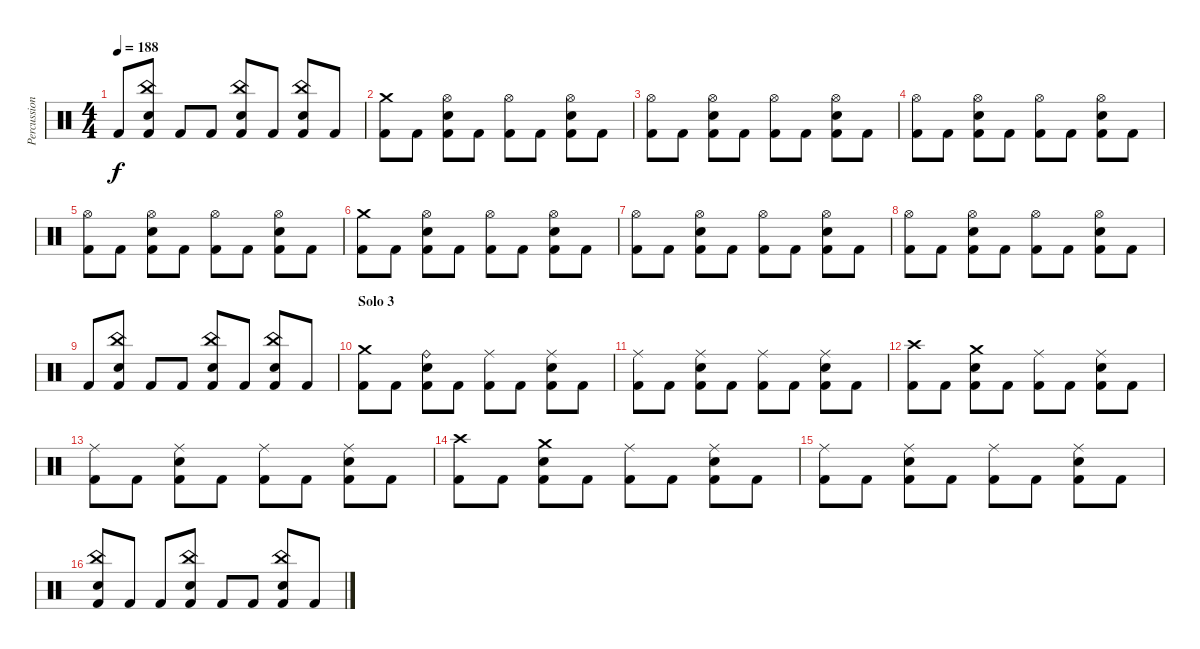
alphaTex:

\track ("Percussions" "Percussion") {instrument percussion}
\staff {score}
\articulation defaults
\ts (4 4)
\tempo 188
\clef neutral
\ks c "Kick (hit) 2".8{dy f}
("China (hit)" "Snare (hit) 2" "Kick (hit) 2").8 "Kick (hit) 2".8 "Kick (hit) 2".8 ("China (hit)" "Snare (hit) 2" "Kick (hit) 2").8 "Kick (hit) 2".8 ("China (hit)" "Snare (hit) 2" "Kick (hit) 2").8 "Kick (hit) 2".8 |
("Crash medium (hit)" "Kick (hit) 2").8 "Kick (hit) 2".8 ("Hi-Hat (open)" "Snare (hit) 2" "Kick (hit) 2").8 "Kick (hit) 2".8 ("Hi-Hat (open)" "Kick (hit) 2").8 "Kick (hit) 2".8 ("Hi-Hat (open)" "Snare (hit) 2" "Kick (hit) 2").8 "Kick (hit) 2".8 |
("Hi-Hat (open)" "Kick (hit) 2").8 "Kick (hit) 2".8 ("Hi-Hat (open)" "Snare (hit) 2" "Kick (hit) 2").8 "Kick (hit) 2".8 ("Hi-Hat (open)" "Kick (hit) 2").8 "Kick (hit) 2".8 ("Hi-Hat (open)" "Snare (hit) 2" "Kick (hit) 2").8 "Kick (hit) 2".8 |
("Hi-Hat (open)" "Kick (hit) 2").8 "Kick (hit) 2".8 ("Hi-Hat (open)" "Snare (hit) 2" "Kick (hit) 2").8 "Kick (hit) 2".8 ("Hi-Hat (open)" "Kick (hit) 2").8 "Kick (hit) 2".8 ("Hi-Hat (open)" "Snare (hit) 2" "Kick (hit) 2").8 "Kick (hit) 2".8 |
("Hi-Hat (open)" "Kick (hit) 2").8 "Kick (hit) 2".8 ("Hi-Hat (open)" "Snare (hit) 2" "Kick (hit) 2").8 "Kick (hit) 2".8 ("Hi-Hat (open)" "Kick (hit) 2").8 "Kick (hit) 2".8 ("Hi-Hat (open)" "Snare (hit) 2" "Kick (hit) 2").8 "Kick (hit) 2".8 |
("Crash medium (hit)" "Kick (hit) 2").8 "Kick (hit) 2".8 ("Hi-Hat (open)" "Snare (hit) 2" "Kick (hit) 2").8 "Kick (hit) 2".8 ("Hi-Hat (open)" "Kick (hit) 2").8 "Kick (hit) 2".8 ("Hi-Hat (open)" "Snare (hit) 2" "Kick (hit) 2").8 "Kick (hit) 2".8 |
("Hi-Hat (open)" "Kick (hit) 2").8 "Kick (hit) 2".8 ("Hi-Hat (open)" "Snare (hit) 2" "Kick (hit) 2").8 "Kick (hit) 2".8 ("Hi-Hat (open)" "Kick (hit) 2").8 "Kick (hit) 2".8 ("Hi-Hat (open)" "Snare (hit) 2" "Kick (hit) 2").8 "Kick (hit) 2".8 |
("Hi-Hat (open)" "Kick (hit) 2").8 "Kick (hit) 2".8 ("Hi-Hat (open)" "Snare (hit) 2" "Kick (hit) 2").8 "Kick (hit) 2".8 ("Hi-Hat (open)" "Kick (hit) 2").8 "Kick (hit) 2".8 ("Hi-Hat (open)" "Snare (hit) 2" "Kick (hit) 2").8 "Kick (hit) 2".8 |
"Kick (hit) 2".8 ("China (hit)" "Snare (hit) 2" "Kick (hit) 2").8 "Kick (hit) 2".8 "Kick (hit) 2".8 ("China (hit)" "Snare (hit) 2" "Kick (hit) 2").8 "Kick (hit) 2".8 ("China (hit)" "Snare (hit) 2" "Kick (hit) 2").8 "Kick (hit) 2".8 |
\section ("" "Solo 3")
("Crash medium (hit)" "Kick (hit) 2").8 "Kick (hit) 2".8 ("Ride (bell)" "Snare (hit) 2" "Kick (hit) 2").8 "Kick (hit) 2".8 ("Ride (middle)" "Kick (hit) 2").8 "Kick (hit) 2".8 ("Ride (middle)" "Snare (hit) 2" "Kick (hit) 2").8 "Kick (hit) 2".8 |
("Ride (middle)" "Kick (hit) 2").8 "Kick (hit) 2".8 ("Ride (middle)" "Snare (hit) 2" "Kick (hit) 2").8 "Kick (hit) 2".8 ("Ride (middle)" "Kick (hit) 2").8 "Kick (hit) 2".8 ("Ride (middle)" "Snare (hit) 2" "Kick (hit) 2").8 "Kick (hit) 2".8 |
("Crash high (hit)" "Kick (hit) 2").8 "Kick (hit) 2".8 ("Crash medium (hit)" "Snare (hit) 2" "Kick (hit) 2").8 "Kick (hit) 2".8 ("Ride (middle)" "Kick (hit) 2").8 "Kick (hit) 2".8 ("Ride (middle)" "Snare (hit) 2" "Kick (hit) 2").8 "Kick (hit) 2".8 |
("Ride (middle)" "Kick (hit) 2").8 "Kick (hit) 2".8 ("Ride (middle)" "Snare (hit) 2" "Kick (hit) 2").8 "Kick (hit) 2".8 ("Ride (middle)" "Kick (hit) 2").8 "Kick (hit) 2".8 ("Ride (middle)" "Snare (hit) 2" "Kick (hit) 2").8 "Kick (hit) 2".8 |
("Crash high (hit)" "Kick (hit) 2").8 "Kick (hit) 2".8 ("Crash medium (hit)" "Snare (hit) 2" "Kick (hit) 2").8 "Kick (hit) 2".8 ("Ride (middle)" "Kick (hit) 2").8 "Kick (hit) 2".8 ("Ride (middle)" "Snare (hit) 2" "Kick (hit) 2").8 "Kick (hit) 2".8 |
("Ride (middle)" "Kick (hit) 2").8 "Kick (hit) 2".8 ("Ride (middle)" "Snare (hit) 2" "Kick (hit) 2").8 "Kick (hit) 2".8 ("Ride (middle)" "Kick (hit) 2").8 "Kick (hit) 2".8 ("Ride (middle)" "Snare (hit) 2" "Kick (hit) 2").8 "Kick (hit) 2".8 |
("China (hit)" "Snare (hit) 2" "Kick (hit) 2").8 "Kick (hit) 2".8 "Kick (hit) 2".8 ("China (hit)" "Snare (hit) 2" "Kick (hit) 2").8 "Kick (hit) 2".8 "Kick (hit) 2".8 ("China (hit)" "Snare (hit) 2" "Kick (hit) 2").8 "Kick (hit) 2".8
